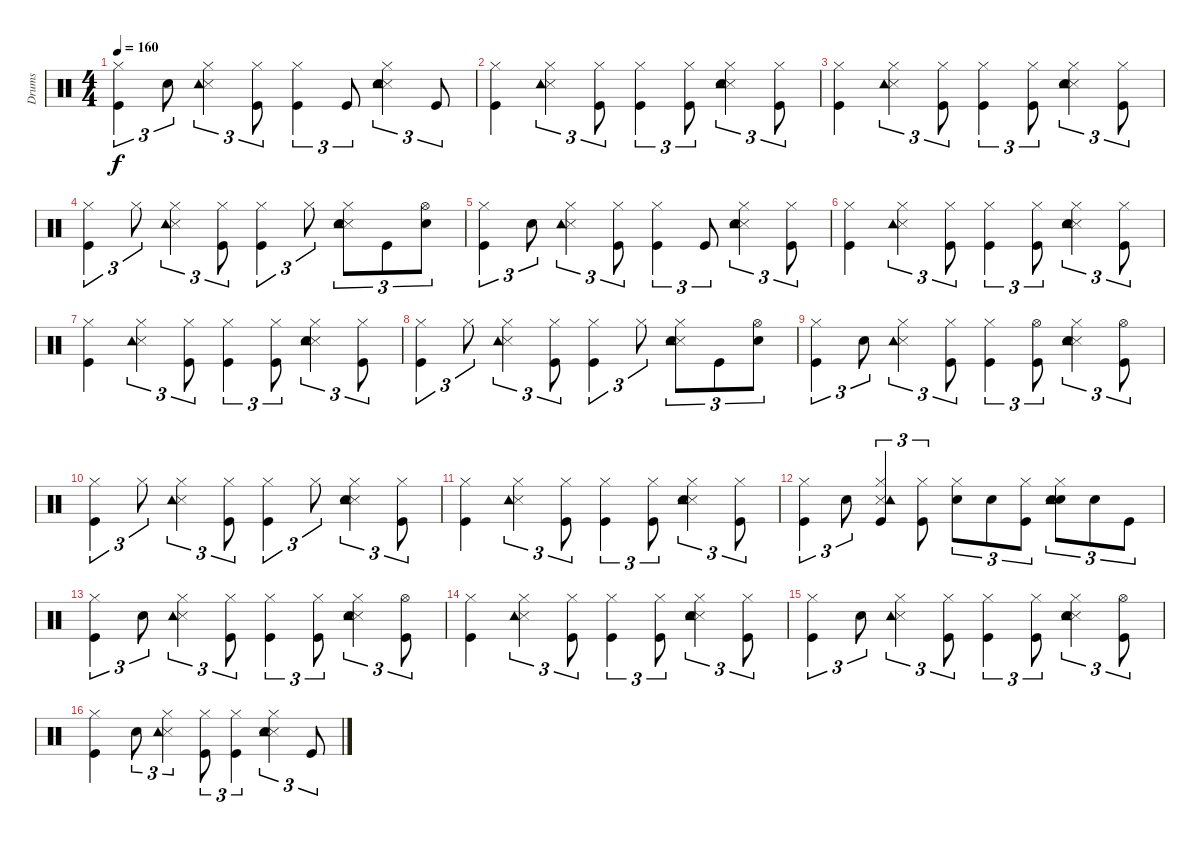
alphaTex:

\track ("Drums   " "Drums   ") {instrument percussion}
\staff {score}
\articulation defaults
\ts (4 4)
\tempo 160
\clef neutral
\ks c
("Kick (hit)" "Hi-Hat (closed)").4{tu (3 2) dy f} "Snare (hit) 2".8{tu (3 2)} ("Snare (side stick) 3" "Tambourine (hit)" "Hi-Hat (closed)").4{tu (3 2)} ("Kick (hit)" "Hi-Hat (closed)").8{tu (3 2)} ("Kick (hit)" "Hi-Hat (closed)").4{tu (3 2)} "Kick (hit)".8{tu (3 2)} ("Snare (side stick) 3" "Hand Clap (hit)" "Tambourine (hit)" "Hi-Hat (closed)").4{tu (3 2)} "Kick (hit)".8{tu (3 2)} |
("Kick (hit)" "Hi-Hat (closed)").4 ("Snare (side stick) 3" "Tambourine (hit)" "Hi-Hat (closed)").4{tu (3 2)} ("Kick (hit)" "Hi-Hat (closed)").8{tu (3 2)} ("Kick (hit)" "Hi-Hat (closed)").4{tu (3 2)} ("Kick (hit)" "Hi-Hat (closed)").8{tu (3 2)} ("Snare (side stick) 3" "Hand Clap (hit)" "Tambourine (hit)" "Hi-Hat (closed)").4{tu (3 2)} ("Kick (hit)" "Hi-Hat (closed)").8{tu (3 2)} |
("Kick (hit)" "Hi-Hat (closed)").4 ("Snare (side stick) 3" "Tambourine (hit)" "Hi-Hat (closed)").4{tu (3 2)} ("Kick (hit)" "Hi-Hat (closed)").8{tu (3 2)} ("Kick (hit)" "Hi-Hat (closed)").4{tu (3 2)} ("Kick (hit)" "Hi-Hat (closed)").8{tu (3 2)} ("Snare (side stick) 3" "Hand Clap (hit)" "Tambourine (hit)" "Hi-Hat (closed)").4{tu (3 2)} ("Kick (hit)" "Hi-Hat (closed)").8{tu (3 2)} |
("Kick (hit)" "Hi-Hat (closed)").4{tu (3 2)} "Hi-Hat (closed)".8{tu (3 2)} ("Snare (side stick) 3" "Tambourine (hit)" "Hi-Hat (closed)").4{tu (3 2)} ("Kick (hit)" "Hi-Hat (closed)").8{tu (3 2)} ("Kick (hit)" "Hi-Hat (closed)").4{tu (3 2)} "Hi-Hat (closed)".8{tu (3 2)} ("Snare (side stick) 3" "Hand Clap (hit)" "Tambourine (hit)" "Hi-Hat (closed)").8{tu (3 2)} "Kick (hit)".8{tu (3 2)} ("Snare (hit) 2" "Hi-Hat (open)").8{tu (3 2)} |
("Kick (hit)" "Hi-Hat (closed)").4{tu (3 2)} "Snare (hit) 2".8{tu (3 2)} ("Snare (side stick) 3" "Tambourine (hit)" "Hi-Hat (closed)").4{tu (3 2)} ("Kick (hit)" "Hi-Hat (closed)").8{tu (3 2)} ("Kick (hit)" "Hi-Hat (closed)").4{tu (3 2)} "Kick (hit)".8{tu (3 2)} ("Snare (side stick) 3" "Hand Clap (hit)" "Tambourine (hit)" "Hi-Hat (closed)").4{tu (3 2)} ("Kick (hit)" "Hi-Hat (closed)").8{tu (3 2)} |
("Kick (hit)" "Hi-Hat (closed)").4 ("Snare (side stick) 3" "Tambourine (hit)" "Hi-Hat (closed)").4{tu (3 2)} ("Kick (hit)" "Hi-Hat (closed)").8{tu (3 2)} ("Kick (hit)" "Hi-Hat (closed)").4{tu (3 2)} ("Kick (hit)" "Hi-Hat (closed)").8{tu (3 2)} ("Snare (side stick) 3" "Hand Clap (hit)" "Tambourine (hit)" "Hi-Hat (closed)").4{tu (3 2)} ("Kick (hit)" "Hi-Hat (closed)").8{tu (3 2)} |
("Kick (hit)" "Hi-Hat (closed)").4 ("Snare (side stick) 3" "Tambourine (hit)" "Hi-Hat (closed)").4{tu (3 2)} ("Kick (hit)" "Hi-Hat (closed)").8{tu (3 2)} ("Kick (hit)" "Hi-Hat (closed)").4{tu (3 2)} ("Kick (hit)" "Hi-Hat (closed)").8{tu (3 2)} ("Snare (side stick) 3" "Hand Clap (hit)" "Tambourine (hit)" "Hi-Hat (closed)").4{tu (3 2)} ("Kick (hit)" "Hi-Hat (closed)").8{tu (3 2)} |
("Kick (hit)" "Hi-Hat (closed)").4{tu (3 2)} "Hi-Hat (closed)".8{tu (3 2)} ("Snare (side stick) 3" "Tambourine (hit)" "Hi-Hat (closed)").4{tu (3 2)} ("Kick (hit)" "Hi-Hat (closed)").8{tu (3 2)} ("Kick (hit)" "Hi-Hat (closed)").4{tu (3 2)} "Hi-Hat (closed)".8{tu (3 2)} ("Snare (side stick) 3" "Hand Clap (hit)" "Tambourine (hit)" "Hi-Hat (closed)").8{tu (3 2)} "Kick (hit)".8{tu (3 2)} ("Snare (hit) 2" "Hi-Hat (open)").8{tu (3 2)} |
("Kick (hit)" "Hi-Hat (closed)").4{tu (3 2)} "Snare (hit) 2".8{tu (3 2)} ("Snare (side stick) 3" "Tambourine (hit)" "Hi-Hat (closed)").4{tu (3 2)} ("Kick (hit)" "Hi-Hat (closed)").8{tu (3 2)} ("Kick (hit)" "Hi-Hat (closed)").4{tu (3 2)} ("Kick (hit)" "Hi-Hat (open)").8{tu (3 2)} ("Snare (side stick) 3" "Hand Clap (hit)" "Tambourine (hit)" "Hi-Hat (closed)").4{tu (3 2)} ("Kick (hit)" "Hi-Hat (open)").8{tu (3 2)} |
("Kick (hit)" "Hi-Hat (closed)").4{tu (3 2)} "Hi-Hat (closed)".8{tu (3 2)} ("Snare (side stick) 3" "Tambourine (hit)" "Hi-Hat (closed)").4{tu (3 2)} ("Kick (hit)" "Hi-Hat (closed)").8{tu (3 2)} ("Kick (hit)" "Hi-Hat (closed)").4{tu (3 2)} "Hi-Hat (closed)".8{tu (3 2)} ("Snare (side stick) 3" "Hand Clap (hit)" "Tambourine (hit)" "Hi-Hat (closed)").4{tu (3 2)} ("Kick (hit)" "Hi-Hat (closed)").8{tu (3 2)} |
("Kick (hit)" "Hi-Hat (closed)").4 ("Snare (side stick) 3" "Tambourine (hit)" "Hi-Hat (closed)").4{tu (3 2)} ("Kick (hit)" "Hi-Hat (closed)").8{tu (3 2)} ("Kick (hit)" "Hi-Hat (closed)").4{tu (3 2)} ("Kick (hit)" "Hi-Hat (closed)").8{tu (3 2)} ("Snare (side stick) 3" "Hand Clap (hit)" "Tambourine (hit)" "Hi-Hat (closed)").4{tu (3 2)} ("Kick (hit)" "Hi-Hat (closed)").8{tu (3 2)} |
("Kick (hit)" "Hi-Hat (closed)").4{tu (3 2)} "Snare (hit) 2".8{tu (3 2)} ("Kick (hit)" "Snare (side stick) 3" "Tambourine (hit)" "Hi-Hat (closed)").4{tu (3 2)} ("Kick (hit)" "Hi-Hat (closed)").8{tu (3 2)} ("Snare (hit) 2" "Hi-Hat (closed)").8{tu (3 2)} "Snare (hit) 2".8{tu (3 2)} ("Kick (hit)" "Hi-Hat (closed)").8{tu (3 2)} ("Snare (hit) 2" "Hand Clap (hit)" "Tambourine (hit)" "Hi-Hat (closed)").8{tu (3 2)} "Snare (hit) 2".8{tu (3 2)} "Kick (hit)".8{tu (3 2)} |
("Kick (hit)" "Hi-Hat (closed)").4{tu (3 2)} "Snare (hit) 2".8{tu (3 2)} ("Snare (side stick) 3" "Tambourine (hit)" "Hi-Hat (closed)").4{tu (3 2)} ("Kick (hit)" "Hi-Hat (closed)").8{tu (3 2)} ("Kick (hit)" "Hi-Hat (closed)").4{tu (3 2)} ("Kick (hit)" "Hi-Hat (closed)").8{tu (3 2)} ("Snare (side stick) 3" "Hand Clap (hit)" "Tambourine (hit)" "Hi-Hat (closed)").4{tu (3 2)} ("Kick (hit)" "Hi-Hat (open)").8{tu (3 2)} |
("Kick (hit)" "Hi-Hat (closed)").4 ("Snare (side stick) 3" "Tambourine (hit)" "Hi-Hat (closed)").4{tu (3 2)} ("Kick (hit)" "Hi-Hat (closed)").8{tu (3 2)} ("Kick (hit)" "Hi-Hat (closed)").4{tu (3 2)} ("Kick (hit)" "Hi-Hat (closed)").8{tu (3 2)} ("Snare (side stick) 3" "Hand Clap (hit)" "Tambourine (hit)" "Hi-Hat (closed)").4{tu (3 2)} ("Kick (hit)" "Hi-Hat (closed)").8{tu (3 2)} |
("Kick (hit)" "Hi-Hat (closed)").4{tu (3 2)} "Snare (hit) 2".8{tu (3 2)} ("Snare (side stick) 3" "Tambourine (hit)" "Hi-Hat (closed)").4{tu (3 2)} ("Kick (hit)" "Hi-Hat (closed)").8{tu (3 2)} ("Kick (hit)" "Hi-Hat (closed)").4{tu (3 2)} ("Kick (hit)" "Hi-Hat (closed)").8{tu (3 2)} ("Snare (side stick) 3" "Hand Clap (hit)" "Tambourine (hit)" "Hi-Hat (closed)").4{tu (3 2)} ("Kick (hit)" "Hi-Hat (open)").8{tu (3 2)} |
("Kick (hit)" "Hi-Hat (closed)").4 "Snare (hit) 2".8{tu (3 2)} ("Snare (side stick) 3" "Tambourine (hit)" "Hi-Hat (closed)").4{tu (3 2)} ("Kick (hit)" "Hi-Hat (closed)").8{tu (3 2)} ("Kick (hit)" "Hi-Hat (closed)").4{tu (3 2)} ("Snare (side stick) 3" "Hand Clap (hit)" "Tambourine (hit)" "Hi-Hat (closed)").4{tu (3 2)} "Kick (hit)".8{tu (3 2)}
